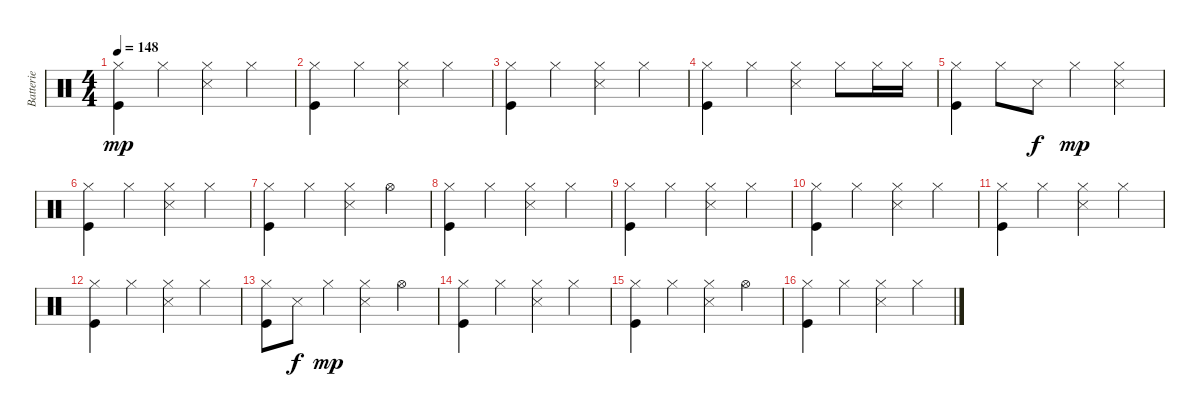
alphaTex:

\track ("Batterie" "Batterie") {instrument percussion}
\staff {score}
\articulation defaults
\ts (4 4)
\tempo 148
\clef neutral
\ks c
("Hi-Hat (closed)" "Kick (hit)").4{dy mp} "Hi-Hat (closed)".4 ("Hi-Hat (closed)" "Metronome (hit)").4 "Hi-Hat (closed)".4 |
("Hi-Hat (closed)" "Kick (hit)").4 "Hi-Hat (closed)".4 ("Hi-Hat (closed)" "Metronome (hit)").4 "Hi-Hat (closed)".4 |
("Hi-Hat (closed)" "Kick (hit)").4 "Hi-Hat (closed)".4 ("Hi-Hat (closed)" "Metronome (hit)").4 "Hi-Hat (closed)".4 |
("Hi-Hat (closed)" "Kick (hit)").4 "Hi-Hat (closed)".4 ("Hi-Hat (closed)" "Metronome (hit)").4 "Hi-Hat (closed)".8 "Hi-Hat (closed)".16 "Hi-Hat (closed)".16 |
("Hi-Hat (closed)" "Kick (hit)").4 "Hi-Hat (closed)".8 "Metronome (hit)".8{dy f} "Hi-Hat (closed)".4{dy mp} ("Hi-Hat (closed)" "Metronome (hit)").4 |
("Hi-Hat (closed)" "Kick (hit)").4 "Hi-Hat (closed)".4 ("Hi-Hat (closed)" "Metronome (hit)").4 "Hi-Hat (closed)".4 |
("Hi-Hat (closed)" "Kick (hit)").4 "Hi-Hat (closed)".4 ("Hi-Hat (closed)" "Metronome (hit)").4 "Hi-Hat (open)".4 |
("Hi-Hat (closed)" "Kick (hit)").4 "Hi-Hat (closed)".4 ("Hi-Hat (closed)" "Metronome (hit)").4 "Hi-Hat (closed)".4 |
("Hi-Hat (closed)" "Kick (hit)").4 "Hi-Hat (closed)".4 ("Hi-Hat (closed)" "Metronome (hit)").4 "Hi-Hat (closed)".4 |
("Hi-Hat (closed)" "Kick (hit)").4 "Hi-Hat (closed)".4 ("Hi-Hat (closed)" "Metronome (hit)").4 "Hi-Hat (closed)".4 |
("Hi-Hat (closed)" "Kick (hit)").4 "Hi-Hat (closed)".4 ("Hi-Hat (closed)" "Metronome (hit)").4 "Hi-Hat (closed)".4 |
("Hi-Hat (closed)" "Kick (hit)").4 "Hi-Hat (closed)".4 ("Hi-Hat (closed)" "Metronome (hit)").4 "Hi-Hat (closed)".4 |
("Hi-Hat (closed)" "Kick (hit)").8 "Metronome (hit)".8{dy f} "Hi-Hat (closed)".4{dy mp} ("Hi-Hat (closed)" "Metronome (hit)").4 "Hi-Hat (open)".4 |
("Hi-Hat (closed)" "Kick (hit)").4 "Hi-Hat (closed)".4 ("Hi-Hat (closed)" "Metronome (hit)").4 "Hi-Hat (closed)".4 |
("Hi-Hat (closed)" "Kick (hit)").4 "Hi-Hat (closed)".4 ("Hi-Hat (closed)" "Metronome (hit)").4 "Hi-Hat (open)".4 |
("Hi-Hat (closed)" "Kick (hit)").4 "Hi-Hat (closed)".4 ("Hi-Hat (closed)" "Metronome (hit)").4 "Hi-Hat (closed)".4
